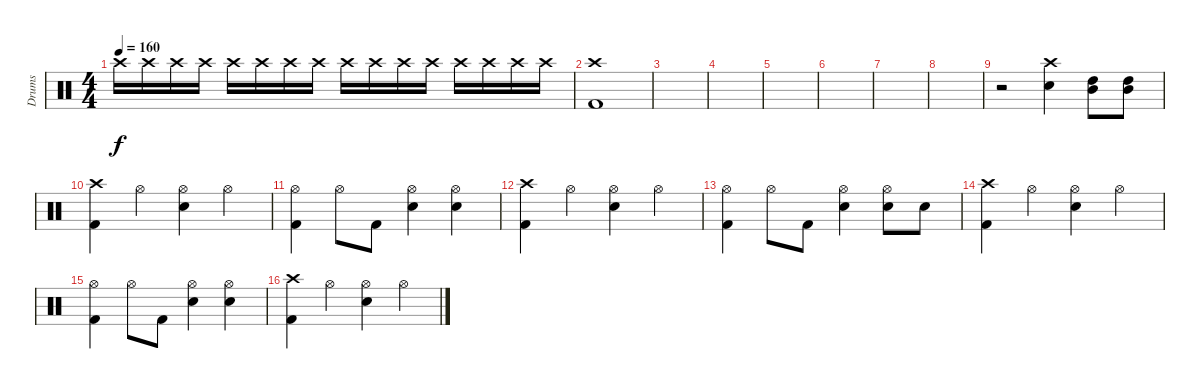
\track ("Drums" "Drums") {instrument percussion}
\staff {score}
\articulation defaults
\ts (4 4)
\tempo 160
\clef neutral
\ks c "Crash high (hit)".16{dy f} "Crash high (hit)".16 "Crash high (hit)".16 "Crash high (hit)".16 "Crash high (hit)".16 "Crash high (hit)".16 "Crash high (hit)".16 "Crash high (hit)".16 "Crash high (hit)".16 "Crash high (hit)".16 "Crash high (hit)".16 "Crash high (hit)".16 "Crash high (hit)".16 "Crash high (hit)".16 "Crash high (hit)".16 "Crash high (hit)".16
|
("Crash high (hit)" "Kick (hit) 2").1 |
|
|
|
|
|
|
r.2 ("Crash high (hit)" "Snare (hit) 2").4 ("Mid Tom (hit)" "High Tom (hit)").8 ("Mid Tom (hit)" "High Tom (hit)").8 |
("Crash high (hit)" "Kick (hit) 2").4 "Hi-Hat (open)".4 ("Hi-Hat (open)" "Snare (hit) 2").4 "Hi-Hat (open)".4 |
("Hi-Hat (open)" "Kick (hit) 2").4 "Hi-Hat (open)".8 "Kick (hit) 2".8 ("Hi-Hat (open)" "Snare (hit) 2").4 ("Hi-Hat (open)" "Snare (hit) 2").4 |
("Crash high (hit)" "Kick (hit) 2").4 "Hi-Hat (open)".4 ("Hi-Hat (open)" "Snare (hit) 2").4 "Hi-Hat (open)".4 |
("Hi-Hat (open)" "Kick (hit) 2").4 "Hi-Hat (open)".8 "Kick (hit) 2".8 ("Hi-Hat (open)" "Snare (hit) 2").4 ("Hi-Hat (open)" "Snare (hit) 2").8 "Snare (hit) 2".8 |
("Crash high (hit)" "Kick (hit) 2").4 "Hi-Hat (open)".4 ("Hi-Hat (open)" "Snare (hit) 2").4 "Hi-Hat (open)".4 |
("Hi-Hat (open)" "Kick (hit) 2").4 "Hi-Hat (open)".8 "Kick (hit) 2".8 ("Hi-Hat (open)" "Snare (hit) 2").4 ("Hi-Hat (open)" "Snare (hit) 2").4 |
("Crash high (hit)" "Kick (hit) 2").4 "Hi-Hat (open)".4 ("Hi-Hat (open)" "Snare (hit) 2").4 "Hi-Hat (open)".4
